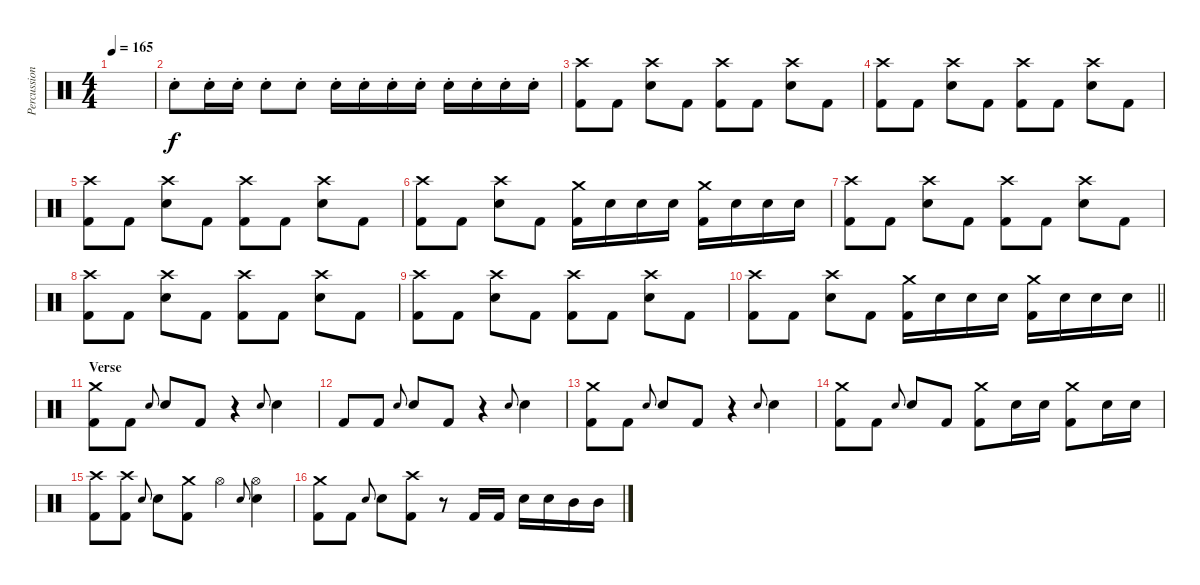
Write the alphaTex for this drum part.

\track ("Percussion" "Percussion") {instrument percussion}
\staff {score}
\articulation defaults
\ts (4 4)
\tempo 165
\clef neutral
\ks c
|
"Electric Snare (hit)"{st}.8 "Electric Snare (hit)"{st}.16 "Electric Snare (hit)"{st}.16 "Electric Snare (hit)"{st}.8 "Electric Snare (hit)"{st}.8 "Electric Snare (hit)"{st}.16 "Electric Snare (hit)"{st}.16 "Electric Snare (hit)"{st}.16 "Electric Snare (hit)"{st}.16 "Electric Snare (hit)"{st}.16 "Electric Snare (hit)"{st}.16 "Electric Snare (hit)"{st}.16 "Electric Snare (hit)"{st}.16 |
("Crash high (hit)" "Kick (hit) 2").8 "Kick (hit) 2".8 ("Crash high (hit)" "Snare (hit) 2").8 "Kick (hit) 2".8 ("Crash high (hit)" "Kick (hit) 2").8 "Kick (hit) 2".8 ("Crash high (hit)" "Snare (hit) 2").8 "Kick (hit) 2".8 |
("Crash high (hit)" "Kick (hit) 2").8 "Kick (hit) 2".8 ("Crash high (hit)" "Snare (hit) 2").8 "Kick (hit) 2".8 ("Crash high (hit)" "Kick (hit) 2").8 "Kick (hit) 2".8 ("Crash high (hit)" "Snare (hit) 2").8 "Kick (hit) 2".8 |
("Crash high (hit)" "Kick (hit) 2").8 "Kick (hit) 2".8 ("Crash high (hit)" "Snare (hit) 2").8 "Kick (hit) 2".8 ("Crash high (hit)" "Kick (hit) 2").8 "Kick (hit) 2".8 ("Crash high (hit)" "Snare (hit) 2").8 "Kick (hit) 2".8 |
("Crash high (hit)" "Kick (hit) 2").8 "Kick (hit) 2".8 ("Crash high (hit)" "Snare (hit) 2").8 "Kick (hit) 2".8 ("Crash medium (hit)" "Kick (hit) 2").16 "Snare (hit) 2".16 "Snare (hit) 2".16 "Snare (hit) 2".16 ("Crash medium (hit)" "Kick (hit) 2").16 "Snare (hit) 2".16 "Snare (hit) 2".16 "Snare (hit) 2".16 |
("Crash high (hit)" "Kick (hit) 2").8 "Kick (hit) 2".8 ("Crash high (hit)" "Snare (hit) 2").8 "Kick (hit) 2".8 ("Crash high (hit)" "Kick (hit) 2").8 "Kick (hit) 2".8 ("Crash high (hit)" "Snare (hit) 2").8 "Kick (hit) 2".8 |
("Crash high (hit)" "Kick (hit) 2").8 "Kick (hit) 2".8 ("Crash high (hit)" "Snare (hit) 2").8 "Kick (hit) 2".8 ("Crash high (hit)" "Kick (hit) 2").8 "Kick (hit) 2".8 ("Crash high (hit)" "Snare (hit) 2").8 "Kick (hit) 2".8 |
("Crash high (hit)" "Kick (hit) 2").8 "Kick (hit) 2".8 ("Crash high (hit)" "Snare (hit) 2").8 "Kick (hit) 2".8 ("Crash high (hit)" "Kick (hit) 2").8 "Kick (hit) 2".8 ("Crash high (hit)" "Snare (hit) 2").8 "Kick (hit) 2".8 |
\barLineRight lightlight
("Crash high (hit)" "Kick (hit) 2").8 "Kick (hit) 2".8 ("Crash high (hit)" "Snare (hit) 2").8 "Kick (hit) 2".8 ("Crash medium (hit)" "Kick (hit) 2").16 "Snare (hit) 2".16 "Snare (hit) 2".16 "Snare (hit) 2".16 ("Crash medium (hit)" "Kick (hit) 2").16 "Snare (hit) 2".16 "Snare (hit) 2".16 "Snare (hit) 2".16 |
\section ("" "Verse")
("Crash medium (hit)" "Kick (hit) 2").8 "Kick (hit) 2".8 "Snare (hit) 2".8{gr onbeat} "Snare (hit) 2".8 "Kick (hit) 2".8 r.4 "Snare (hit) 2".8{gr onbeat} "Snare (hit) 2".4 |
"Kick (hit) 2".8 "Kick (hit) 2".8 "Snare (hit) 2".8{gr onbeat} "Snare (hit) 2".8 "Kick (hit) 2".8 r.4 "Snare (hit) 2".8{gr onbeat} "Snare (hit) 2".4 |
("Crash medium (hit)" "Kick (hit) 2").8 "Kick (hit) 2".8 "Snare (hit) 2".8{gr onbeat} "Snare (hit) 2".8 "Kick (hit) 2".8 r.4 "Snare (hit) 2".8{gr onbeat} "Snare (hit) 2".4 |
("Crash medium (hit)" "Kick (hit) 2").8 "Kick (hit) 2".8 "Snare (hit) 2".8{gr onbeat} "Snare (hit) 2".8 "Kick (hit) 2".8 ("Crash medium (hit)" "Kick (hit) 2").8 "Snare (hit) 2".16 "Snare (hit) 2".16 ("Crash medium (hit)" "Kick (hit) 2").8 "Snare (hit) 2".16 "Snare (hit) 2".16 |
("Crash high (hit)" "Kick (hit) 2").8 ("Crash high (hit)" "Kick (hit) 2").8 "Snare (hit) 2".8{gr onbeat} "Snare (hit) 2".8 ("Crash medium (hit)" "Kick (hit) 2").8 "Hi-Hat (open)".4 "Snare (hit) 2".8{gr onbeat} ("Hi-Hat (open)" "Snare (hit) 2").4 |
("Crash medium (hit)" "Kick (hit) 2").8 "Kick (hit) 2".8 "Snare (hit) 2".8{gr onbeat} "Snare (hit) 2".8 ("Crash high (hit)" "Kick (hit) 2").8 r.8 "Kick (hit) 2".16 "Kick (hit) 2".16 "Snare (hit) 2".16 "Snare (hit) 2".16 "Mid Tom (hit)".16 "Mid Tom (hit)".16
